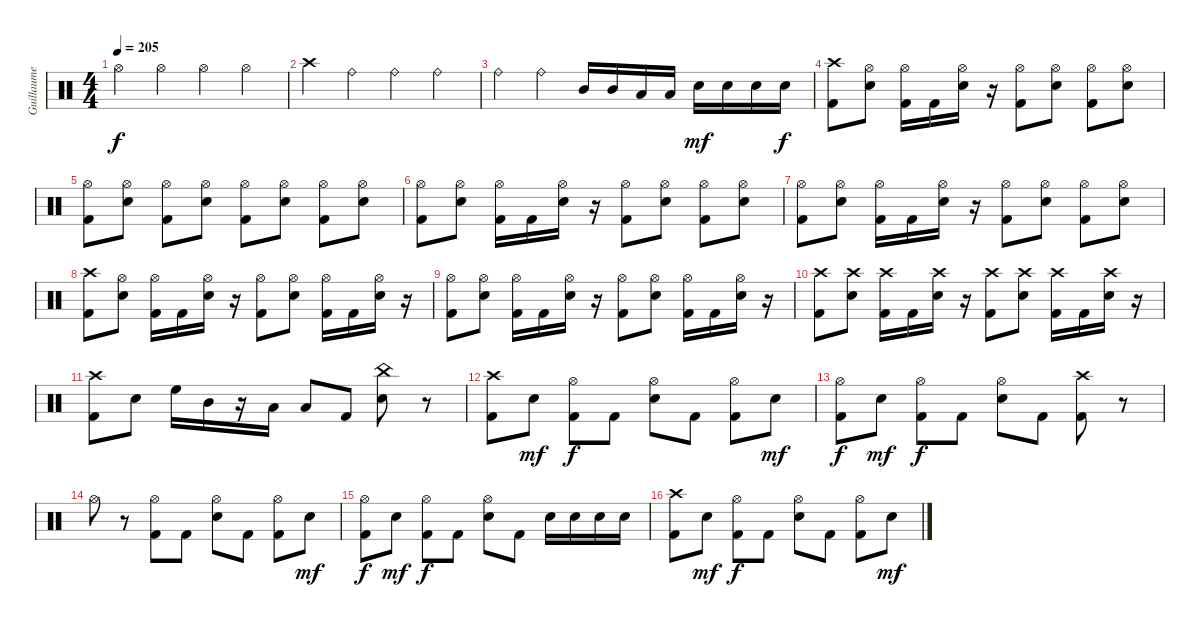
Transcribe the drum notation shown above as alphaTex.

\track ("Guillaume" "Guillaume") {instrument percussion}
\staff {score}
\articulation defaults
\ts (4 4)
\tempo 205
\clef neutral
\ks c "Hi-Hat (open)".4{dy f} "Hi-Hat (open)".4 "Hi-Hat (open)".4 "Hi-Hat (open)".4
|
"Crash high (hit)".4 "Ride (bell)".4 "Ride (bell)".4 "Ride (bell)".4 |
"Ride (bell)".4 "Ride (bell)".4 "Mid Tom (hit)".16 "Mid Tom (hit)".16 "Low Tom (hit)".16 "Low Tom (hit)".16 "Snare (hit) 2".16{dy mf} "Snare (hit) 2".16 "Snare (hit) 2".16 "Snare (hit) 2".16{dy f} |
("Crash high (hit)" "Kick (hit) 2").8 ("Snare (hit) 2" "Hi-Hat (open)").8 ("Hi-Hat (open)" "Kick (hit) 2").16 "Kick (hit) 2".16 ("Hi-Hat (open)" "Snare (hit) 2").16 r.16 ("Hi-Hat (open)" "Kick (hit) 2").8 ("Hi-Hat (open)" "Snare (hit) 2").8 ("Hi-Hat (open)" "Kick (hit) 2").8 ("Hi-Hat (open)" "Snare (hit) 2").8 |
("Hi-Hat (open)" "Kick (hit) 2").8 ("Hi-Hat (open)" "Snare (hit) 2").8 ("Hi-Hat (open)" "Kick (hit) 2").8 ("Hi-Hat (open)" "Snare (hit) 2").8 ("Hi-Hat (open)" "Kick (hit) 2").8 ("Hi-Hat (open)" "Snare (hit) 2").8 ("Hi-Hat (open)" "Kick (hit) 2").8 ("Hi-Hat (open)" "Snare (hit) 2").8 |
("Hi-Hat (open)" "Kick (hit) 2").8 ("Snare (hit) 2" "Hi-Hat (open)").8 ("Hi-Hat (open)" "Kick (hit) 2").16 "Kick (hit) 2".16 ("Hi-Hat (open)" "Snare (hit) 2").16 r.16 ("Hi-Hat (open)" "Kick (hit) 2").8 ("Hi-Hat (open)" "Snare (hit) 2").8 ("Hi-Hat (open)" "Kick (hit) 2").8 ("Hi-Hat (open)" "Snare (hit) 2").8 |
("Hi-Hat (open)" "Kick (hit) 2").8 ("Snare (hit) 2" "Hi-Hat (open)").8 ("Hi-Hat (open)" "Kick (hit) 2").16 "Kick (hit) 2".16 ("Hi-Hat (open)" "Snare (hit) 2").16 r.16 ("Hi-Hat (open)" "Kick (hit) 2").8 ("Hi-Hat (open)" "Snare (hit) 2").8 ("Hi-Hat (open)" "Kick (hit) 2").8 ("Hi-Hat (open)" "Snare (hit) 2").8 |
("Crash high (hit)" "Kick (hit) 2").8 ("Snare (hit) 2" "Hi-Hat (open)").8 ("Hi-Hat (open)" "Kick (hit) 2").16 "Kick (hit) 2".16 ("Hi-Hat (open)" "Snare (hit) 2").16 r.16 ("Hi-Hat (open)" "Kick (hit) 2").8 ("Hi-Hat (open)" "Snare (hit) 2").8 ("Hi-Hat (open)" "Kick (hit) 2").16 "Kick (hit) 2".16 ("Hi-Hat (open)" "Snare (hit) 2").16 r.16 |
("Hi-Hat (open)" "Kick (hit) 2").8 ("Snare (hit) 2" "Hi-Hat (open)").8 ("Hi-Hat (open)" "Kick (hit) 2").16 "Kick (hit) 2".16 ("Hi-Hat (open)" "Snare (hit) 2").16 r.16 ("Hi-Hat (open)" "Kick (hit) 2").8 ("Hi-Hat (open)" "Snare (hit) 2").8 ("Hi-Hat (open)" "Kick (hit) 2").16 "Kick (hit) 2".16 ("Hi-Hat (open)" "Snare (hit) 2").16 r.16 |
("Crash high (hit)" "Kick (hit) 2").8 ("Snare (hit) 2" "Crash high (hit)").8 ("Crash high (hit)" "Kick (hit) 2").16 "Kick (hit) 2".16 ("Crash high (hit)" "Snare (hit) 2").16 r.16 ("Crash high (hit)" "Kick (hit) 2").8 ("Crash high (hit)" "Snare (hit) 2").8 ("Crash high (hit)" "Kick (hit) 2").16 "Kick (hit) 2".16 ("Crash high (hit)" "Snare (hit) 2").16 r.16 |
("Kick (hit) 2" "Crash high (hit)").8 "Snare (hit) 2".8 "High Floor Tom (hit)".16 "Mid Tom (hit)".16 r.16 "Low Tom (hit)".16 "Low Floor Tom (hit)".8 "Kick (hit) 2".8 ("China (hit)" "Snare (hit) 2").8 r.8 |
("Crash high (hit)" "Kick (hit) 2").8 "Snare (hit) 2".8{dy mf} ("Hi-Hat (open)" "Kick (hit) 2").8{dy f} "Kick (hit) 2".8 ("Hi-Hat (open)" "Snare (hit) 2").8 "Kick (hit) 2".8 ("Hi-Hat (open)" "Kick (hit) 2").8 "Snare (hit) 2".8{dy mf} |
("Hi-Hat (open)" "Kick (hit) 2").8{dy f} "Snare (hit) 2".8{dy mf} ("Hi-Hat (open)" "Kick (hit) 2").8{dy f} "Kick (hit) 2".8 ("Hi-Hat (open)" "Snare (hit) 2").8 "Kick (hit) 2".8 ("Crash high (hit)" "Kick (hit) 2").8 r.8 |
"Hi-Hat (open)".8 r.8 ("Hi-Hat (open)" "Kick (hit) 2").8 "Kick (hit) 2".8 ("Hi-Hat (open)" "Snare (hit) 2").8 "Kick (hit) 2".8 ("Hi-Hat (open)" "Kick (hit) 2").8 "Snare (hit) 2".8{dy mf} |
("Hi-Hat (open)" "Kick (hit) 2").8{dy f} "Snare (hit) 2".8{dy mf} ("Hi-Hat (open)" "Kick (hit) 2").8{dy f} "Kick (hit) 2".8 ("Hi-Hat (open)" "Snare (hit) 2").8 "Kick (hit) 2".8 "Snare (hit) 2".16 "Snare (hit) 2".16 "Snare (hit) 2".16 "Snare (hit) 2".16 |
("Crash high (hit)" "Kick (hit) 2").8 "Snare (hit) 2".8{dy mf} ("Hi-Hat (open)" "Kick (hit) 2").8{dy f} "Kick (hit) 2".8 ("Hi-Hat (open)" "Snare (hit) 2").8 "Kick (hit) 2".8 ("Hi-Hat (open)" "Kick (hit) 2").8 "Snare (hit) 2".8{dy mf}
